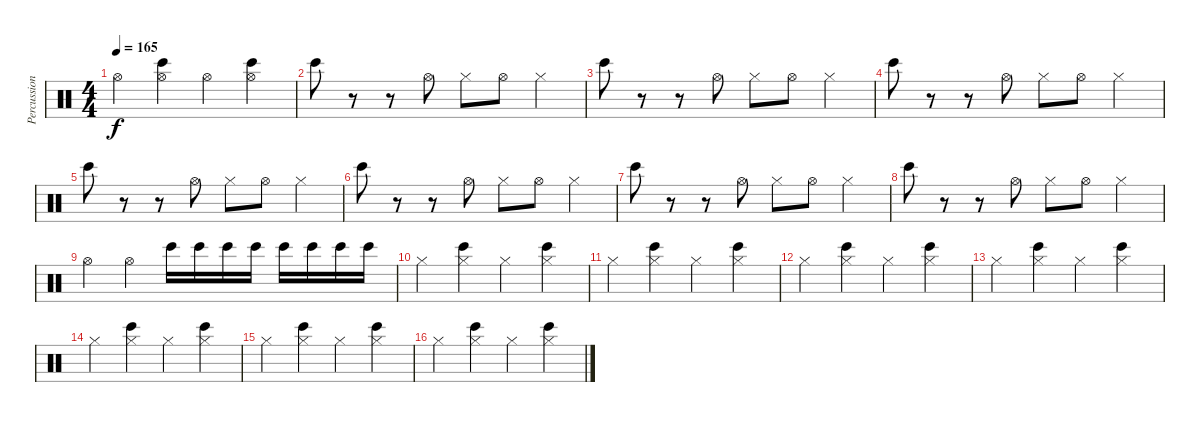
\track ("Percussion" "Percussion") {instrument percussion}
\staff {score}
\articulation defaults
\ts (4 4)
\tempo 165
\clef neutral
\ks c "Hi-Hat (open)".4{dy f}
("Bongo High (hit)" "Hi-Hat (open)").4 "Hi-Hat (open)".4 ("Bongo High (hit)" "Hi-Hat (open)").4 |
"Bongo High (hit)".8 r.8 r.8 "Hi-Hat (open)".8 "Hi-Hat (closed)".8 "Hi-Hat (open)".8 "Hi-Hat (closed)".4 |
"Bongo High (hit)".8 r.8 r.8 "Hi-Hat (open)".8 "Hi-Hat (closed)".8 "Hi-Hat (open)".8 "Hi-Hat (closed)".4 |
"Bongo High (hit)".8 r.8 r.8 "Hi-Hat (open)".8 "Hi-Hat (closed)".8 "Hi-Hat (open)".8 "Hi-Hat (closed)".4 |
"Bongo High (hit)".8 r.8 r.8 "Hi-Hat (open)".8 "Hi-Hat (closed)".8 "Hi-Hat (open)".8 "Hi-Hat (closed)".4 |
"Bongo High (hit)".8 r.8 r.8 "Hi-Hat (open)".8 "Hi-Hat (closed)".8 "Hi-Hat (open)".8 "Hi-Hat (closed)".4 |
"Bongo High (hit)".8 r.8 r.8 "Hi-Hat (open)".8 "Hi-Hat (closed)".8 "Hi-Hat (open)".8 "Hi-Hat (closed)".4 |
"Bongo High (hit)".8 r.8 r.8 "Hi-Hat (open)".8 "Hi-Hat (closed)".8 "Hi-Hat (open)".8 "Hi-Hat (closed)".4 |
"Hi-Hat (open)".4 "Hi-Hat (open)".4 "Bongo High (hit)".16 "Bongo High (hit)".16 "Bongo High (hit)".16 "Bongo High (hit)".16 "Bongo High (hit)".16 "Bongo High (hit)".16 "Bongo High (hit)".16 "Bongo High (hit)".16 |
"Hi-Hat (closed)".4 ("Bongo High (hit)" "Hi-Hat (closed)").4 "Hi-Hat (closed)".4 ("Bongo High (hit)" "Hi-Hat (closed)").4 |
"Hi-Hat (closed)".4 ("Bongo High (hit)" "Hi-Hat (closed)").4 "Hi-Hat (closed)".4 ("Bongo High (hit)" "Hi-Hat (closed)").4 |
"Hi-Hat (closed)".4 ("Bongo High (hit)" "Hi-Hat (closed)").4 "Hi-Hat (closed)".4 ("Bongo High (hit)" "Hi-Hat (closed)").4 |
"Hi-Hat (closed)".4 ("Bongo High (hit)" "Hi-Hat (closed)").4 "Hi-Hat (closed)".4 ("Bongo High (hit)" "Hi-Hat (closed)").4 |
"Hi-Hat (closed)".4 ("Bongo High (hit)" "Hi-Hat (closed)").4 "Hi-Hat (closed)".4 ("Bongo High (hit)" "Hi-Hat (closed)").4 |
"Hi-Hat (closed)".4 ("Bongo High (hit)" "Hi-Hat (closed)").4 "Hi-Hat (closed)".4 ("Bongo High (hit)" "Hi-Hat (closed)").4 |
"Hi-Hat (closed)".4 ("Bongo High (hit)" "Hi-Hat (closed)").4 "Hi-Hat (closed)".4 ("Bongo High (hit)" "Hi-Hat (closed)").4
